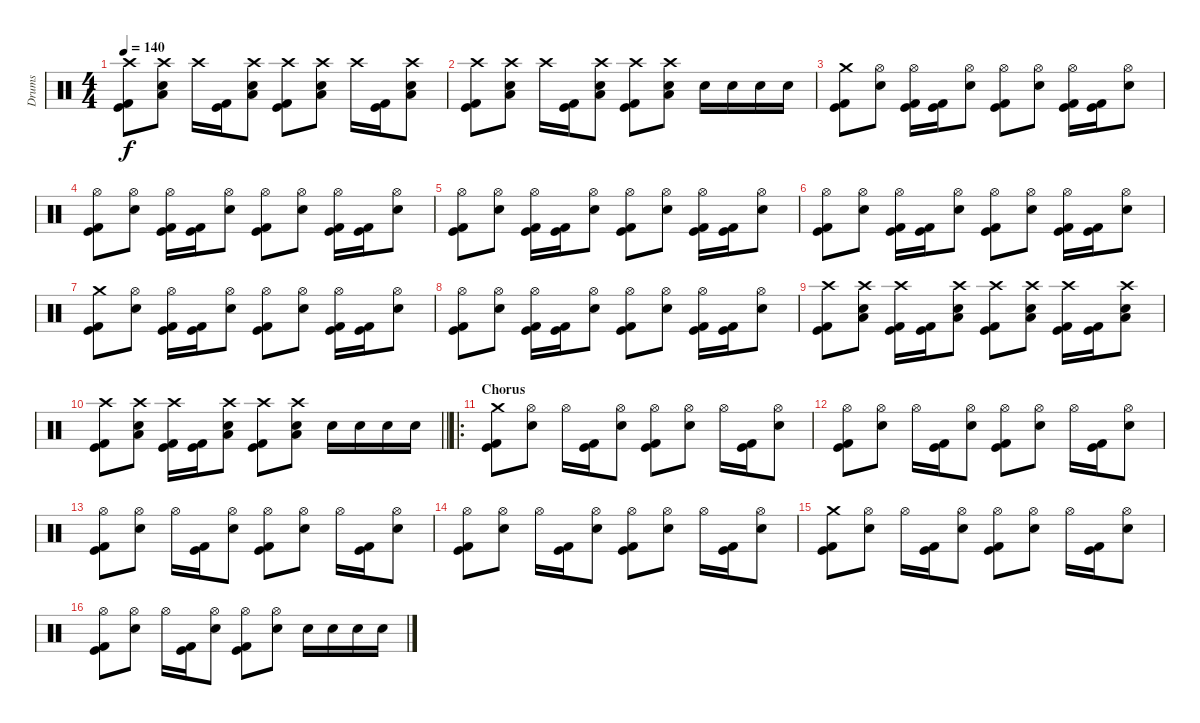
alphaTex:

\track ("Drums" "Drums") {instrument percussion}
\staff {score}
\articulation defaults
\ts (4 4)
\tempo 140
\clef neutral
\ks c
("Crash high (hit)" "Kick (hit)" "Kick (hit) 2").8{dy f} ("Crash high (hit)" "Electric Snare (hit)" "Low Floor Tom (hit)").8 "Crash high (hit)".16 ("Kick (hit)" "Kick (hit) 2").16 ("Crash high (hit)" "Electric Snare (hit)" "Low Floor Tom (hit)").8 ("Crash high (hit)" "Kick (hit)" "Kick (hit) 2").8 ("Crash high (hit)" "Electric Snare (hit)" "Low Floor Tom (hit)").8 "Crash high (hit)".16 ("Kick (hit)" "Kick (hit) 2").16 ("Crash high (hit)" "Electric Snare (hit)" "Low Floor Tom (hit)").8 |
("Crash high (hit)" "Kick (hit)" "Kick (hit) 2").8 ("Crash high (hit)" "Electric Snare (hit)" "Low Floor Tom (hit)").8 "Crash high (hit)".16 ("Kick (hit)" "Kick (hit) 2").16 ("Crash high (hit)" "Electric Snare (hit)" "Low Floor Tom (hit)").8 ("Crash high (hit)" "Kick (hit)" "Kick (hit) 2").8 ("Crash high (hit)" "Electric Snare (hit)" "Low Floor Tom (hit)").8 "Electric Snare (hit)".16 "Electric Snare (hit)".16 "Electric Snare (hit)".16 "Electric Snare (hit)".16 |
("Crash medium (hit)" "Kick (hit)" "Kick (hit) 2").8 ("Hi-Hat (open)" "Electric Snare (hit)").8 ("Hi-Hat (open)" "Kick (hit)" "Kick (hit) 2").16 ("Kick (hit)" "Kick (hit) 2").16 ("Hi-Hat (open)" "Electric Snare (hit)").8 ("Hi-Hat (open)" "Kick (hit)" "Kick (hit) 2").8 ("Hi-Hat (open)" "Electric Snare (hit)").8 ("Hi-Hat (open)" "Kick (hit)" "Kick (hit) 2").16 ("Kick (hit)" "Kick (hit) 2").16 ("Hi-Hat (open)" "Electric Snare (hit)").8 |
("Hi-Hat (open)" "Kick (hit)" "Kick (hit) 2").8 ("Hi-Hat (open)" "Electric Snare (hit)").8 ("Hi-Hat (open)" "Kick (hit)" "Kick (hit) 2").16 ("Kick (hit)" "Kick (hit) 2").16 ("Hi-Hat (open)" "Electric Snare (hit)").8 ("Hi-Hat (open)" "Kick (hit)" "Kick (hit) 2").8 ("Hi-Hat (open)" "Electric Snare (hit)").8 ("Hi-Hat (open)" "Kick (hit)" "Kick (hit) 2").16 ("Kick (hit)" "Kick (hit) 2").16 ("Hi-Hat (open)" "Electric Snare (hit)").8 |
("Hi-Hat (open)" "Kick (hit)" "Kick (hit) 2").8 ("Hi-Hat (open)" "Electric Snare (hit)").8 ("Hi-Hat (open)" "Kick (hit)" "Kick (hit) 2").16 ("Kick (hit)" "Kick (hit) 2").16 ("Hi-Hat (open)" "Electric Snare (hit)").8 ("Hi-Hat (open)" "Kick (hit)" "Kick (hit) 2").8 ("Hi-Hat (open)" "Electric Snare (hit)").8 ("Hi-Hat (open)" "Kick (hit)" "Kick (hit) 2").16 ("Kick (hit)" "Kick (hit) 2").16 ("Hi-Hat (open)" "Electric Snare (hit)").8 |
("Hi-Hat (open)" "Kick (hit)" "Kick (hit) 2").8 ("Hi-Hat (open)" "Electric Snare (hit)").8 ("Hi-Hat (open)" "Kick (hit)" "Kick (hit) 2").16 ("Kick (hit)" "Kick (hit) 2").16 ("Hi-Hat (open)" "Electric Snare (hit)").8 ("Hi-Hat (open)" "Kick (hit)" "Kick (hit) 2").8 ("Hi-Hat (open)" "Electric Snare (hit)").8 ("Hi-Hat (open)" "Kick (hit)" "Kick (hit) 2").16 ("Kick (hit)" "Kick (hit) 2").16 ("Hi-Hat (open)" "Electric Snare (hit)").8 |
("Crash medium (hit)" "Kick (hit)" "Kick (hit) 2").8 ("Hi-Hat (open)" "Electric Snare (hit)").8 ("Hi-Hat (open)" "Kick (hit)" "Kick (hit) 2").16 ("Kick (hit)" "Kick (hit) 2").16 ("Hi-Hat (open)" "Electric Snare (hit)").8 ("Hi-Hat (open)" "Kick (hit)" "Kick (hit) 2").8 ("Hi-Hat (open)" "Electric Snare (hit)").8 ("Hi-Hat (open)" "Kick (hit)" "Kick (hit) 2").16 ("Kick (hit)" "Kick (hit) 2").16 ("Hi-Hat (open)" "Electric Snare (hit)").8 |
("Hi-Hat (open)" "Kick (hit)" "Kick (hit) 2").8 ("Hi-Hat (open)" "Electric Snare (hit)").8 ("Hi-Hat (open)" "Kick (hit)" "Kick (hit) 2").16 ("Kick (hit)" "Kick (hit) 2").16 ("Hi-Hat (open)" "Electric Snare (hit)").8 ("Hi-Hat (open)" "Kick (hit)" "Kick (hit) 2").8 ("Hi-Hat (open)" "Electric Snare (hit)").8 ("Hi-Hat (open)" "Kick (hit)" "Kick (hit) 2").16 ("Kick (hit)" "Kick (hit) 2").16 ("Hi-Hat (open)" "Electric Snare (hit)").8 |
("Crash high (hit)" "Kick (hit)" "Kick (hit) 2").8 ("Crash high (hit)" "Electric Snare (hit)" "Low Floor Tom (hit)").8 ("Crash high (hit)" "Kick (hit)" "Kick (hit) 2").16 ("Kick (hit)" "Kick (hit) 2").16 ("Crash high (hit)" "Electric Snare (hit)" "Low Floor Tom (hit)").8 ("Crash high (hit)" "Kick (hit)" "Kick (hit) 2").8 ("Crash high (hit)" "Electric Snare (hit)" "Low Floor Tom (hit)").8 ("Crash high (hit)" "Kick (hit)" "Kick (hit) 2").16 ("Kick (hit)" "Kick (hit) 2").16 ("Crash high (hit)" "Electric Snare (hit)" "Low Floor Tom (hit)").8 |
\barLineRight lightlight
("Crash high (hit)" "Kick (hit)" "Kick (hit) 2").8 ("Crash high (hit)" "Electric Snare (hit)" "Low Floor Tom (hit)").8 ("Crash high (hit)" "Kick (hit)" "Kick (hit) 2").16 ("Kick (hit)" "Kick (hit) 2").16 ("Crash high (hit)" "Electric Snare (hit)" "Low Floor Tom (hit)").8 ("Crash high (hit)" "Kick (hit)" "Kick (hit) 2").8 ("Crash high (hit)" "Electric Snare (hit)" "Low Floor Tom (hit)").8 "Electric Snare (hit)".16 "Electric Snare (hit)".16 "Electric Snare (hit)".16 "Electric Snare (hit)".16 |
\ro
\section ("" "Chorus")
("Crash medium (hit)" "Kick (hit)" "Kick (hit) 2").8 ("Hi-Hat (open)" "Electric Snare (hit)").8 "Hi-Hat (open)".16 ("Kick (hit)" "Kick (hit) 2").16 ("Hi-Hat (open)" "Electric Snare (hit)").8 ("Hi-Hat (open)" "Kick (hit)" "Kick (hit) 2").8 ("Hi-Hat (open)" "Electric Snare (hit)").8 "Hi-Hat (open)".16 ("Kick (hit)" "Kick (hit) 2").16 ("Hi-Hat (open)" "Electric Snare (hit)").8 |
("Hi-Hat (open)" "Kick (hit)" "Kick (hit) 2").8 ("Hi-Hat (open)" "Electric Snare (hit)").8 "Hi-Hat (open)".16 ("Kick (hit)" "Kick (hit) 2").16 ("Hi-Hat (open)" "Electric Snare (hit)").8 ("Hi-Hat (open)" "Kick (hit)" "Kick (hit) 2").8 ("Hi-Hat (open)" "Electric Snare (hit)").8 "Hi-Hat (open)".16 ("Kick (hit)" "Kick (hit) 2").16 ("Hi-Hat (open)" "Electric Snare (hit)").8 |
("Hi-Hat (open)" "Kick (hit)" "Kick (hit) 2").8 ("Hi-Hat (open)" "Electric Snare (hit)").8 "Hi-Hat (open)".16 ("Kick (hit)" "Kick (hit) 2").16 ("Hi-Hat (open)" "Electric Snare (hit)").8 ("Hi-Hat (open)" "Kick (hit)" "Kick (hit) 2").8 ("Hi-Hat (open)" "Electric Snare (hit)").8 "Hi-Hat (open)".16 ("Kick (hit)" "Kick (hit) 2").16 ("Hi-Hat (open)" "Electric Snare (hit)").8 |
("Hi-Hat (open)" "Kick (hit)" "Kick (hit) 2").8 ("Hi-Hat (open)" "Electric Snare (hit)").8 "Hi-Hat (open)".16 ("Kick (hit)" "Kick (hit) 2").16 ("Hi-Hat (open)" "Electric Snare (hit)").8 ("Hi-Hat (open)" "Kick (hit)" "Kick (hit) 2").8 ("Hi-Hat (open)" "Electric Snare (hit)").8 "Hi-Hat (open)".16 ("Kick (hit)" "Kick (hit) 2").16 ("Hi-Hat (open)" "Electric Snare (hit)").8 |
("Crash medium (hit)" "Kick (hit)" "Kick (hit) 2").8 ("Hi-Hat (open)" "Electric Snare (hit)").8 "Hi-Hat (open)".16 ("Kick (hit)" "Kick (hit) 2").16 ("Hi-Hat (open)" "Electric Snare (hit)").8 ("Hi-Hat (open)" "Kick (hit)" "Kick (hit) 2").8 ("Hi-Hat (open)" "Electric Snare (hit)").8 "Hi-Hat (open)".16 ("Kick (hit)" "Kick (hit) 2").16 ("Hi-Hat (open)" "Electric Snare (hit)").8 |
("Hi-Hat (open)" "Kick (hit)" "Kick (hit) 2").8 ("Hi-Hat (open)" "Electric Snare (hit)").8 "Hi-Hat (open)".16 ("Kick (hit)" "Kick (hit) 2").16 ("Hi-Hat (open)" "Electric Snare (hit)").8 ("Hi-Hat (open)" "Kick (hit)" "Kick (hit) 2").8 ("Hi-Hat (open)" "Electric Snare (hit)").8 "Electric Snare (hit)".16 "Electric Snare (hit)".16 "Electric Snare (hit)".16 "Electric Snare (hit)".16
